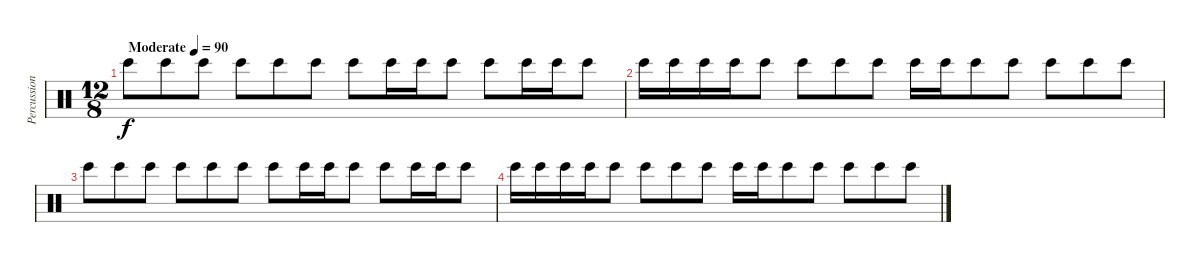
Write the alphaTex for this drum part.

\track ("Percussion" "Percussion") {instrument percussion}
\staff {score}
\articulation defaults
\ts (12 8)
\tempo (90 "Moderate")
\clef neutral
\ks c "Bongo High (hit)".8{dy f} "Bongo High (hit)".8 "Bongo High (hit)".8 "Bongo High (hit)".8 "Bongo High (hit)".8 "Bongo High (hit)".8 "Bongo High (hit)".8 "Bongo High (hit)".16 "Bongo High (hit)".16 "Bongo High (hit)".8 "Bongo High (hit)".8 "Bongo High (hit)".16 "Bongo High (hit)".16 "Bongo High (hit)".8
|
"Bongo High (hit)".16 "Bongo High (hit)".16 "Bongo High (hit)".16 "Bongo High (hit)".16 "Bongo High (hit)".8 "Bongo High (hit)".8 "Bongo High (hit)".8 "Bongo High (hit)".8 "Bongo High (hit)".16 "Bongo High (hit)".16 "Bongo High (hit)".8 "Bongo High (hit)".8 "Bongo High (hit)".8 "Bongo High (hit)".8 "Bongo High (hit)".8 |
"Bongo High (hit)".8 "Bongo High (hit)".8 "Bongo High (hit)".8 "Bongo High (hit)".8 "Bongo High (hit)".8 "Bongo High (hit)".8 "Bongo High (hit)".8 "Bongo High (hit)".16 "Bongo High (hit)".16 "Bongo High (hit)".8 "Bongo High (hit)".8 "Bongo High (hit)".16 "Bongo High (hit)".16 "Bongo High (hit)".8 |
"Bongo High (hit)".16 "Bongo High (hit)".16 "Bongo High (hit)".16 "Bongo High (hit)".16 "Bongo High (hit)".8 "Bongo High (hit)".8 "Bongo High (hit)".8 "Bongo High (hit)".8 "Bongo High (hit)".16 "Bongo High (hit)".16 "Bongo High (hit)".8 "Bongo High (hit)".8 "Bongo High (hit)".8 "Bongo High (hit)".8 "Bongo High (hit)".8
